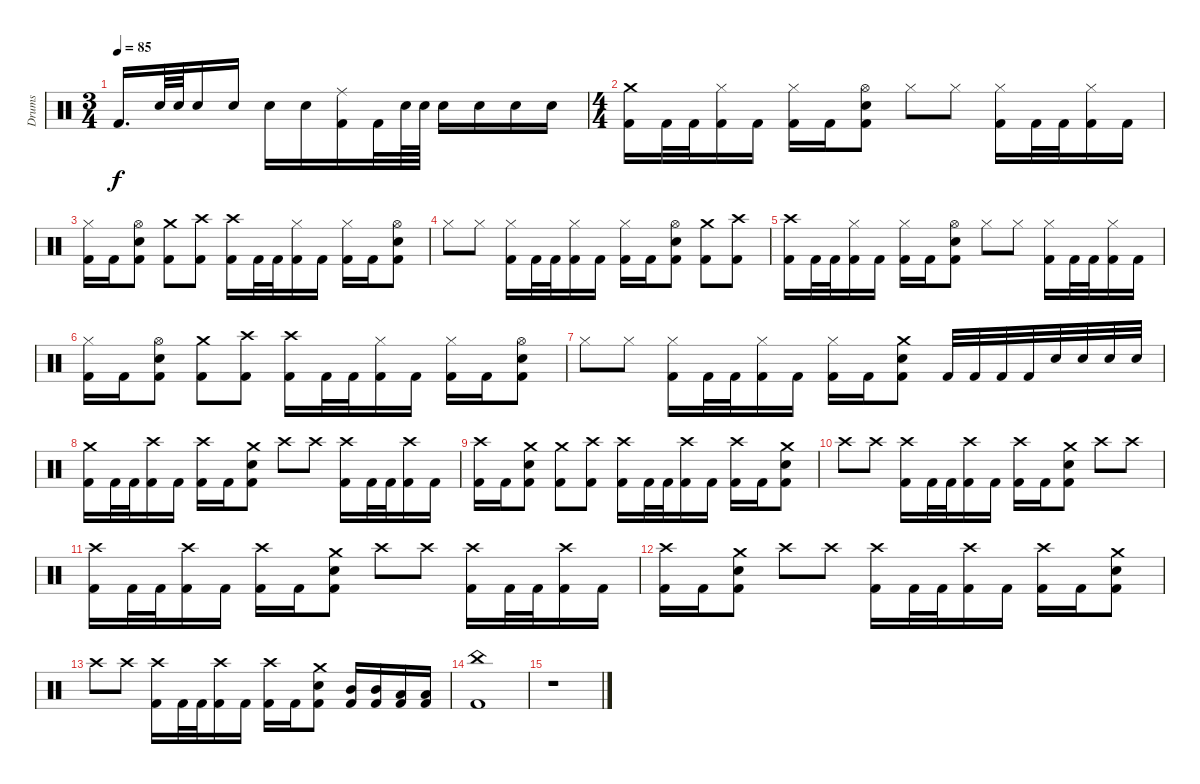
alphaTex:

\track ("Drums" "Drums") {instrument percussion}
\staff {score}
\articulation defaults
\ts (3 4)
\tempo 85
\clef neutral
\ks c "Kick (hit) 2".16{d dy f} "Snare (hit) 2".64 "Snare (hit) 2".64 "Snare (hit) 2".16 "Snare (hit) 2".16 "Snare (hit) 2".16 "Snare (hit) 2".16
("Ride (middle)" "Kick (hit) 2").16 "Kick (hit) 2".32 "Snare (hit) 2".64 "Snare (hit) 2".64 "Snare (hit) 2".16 "Snare (hit) 2".16 "Snare (hit) 2".16 "Snare (hit) 2".16 |
\ts (4 4)
("Crash medium (hit)" "Kick (hit) 2").16 "Kick (hit) 2".32 "Kick (hit) 2".32 ("Hi-Hat (closed)" "Kick (hit) 2").16 "Kick (hit) 2".16 ("Hi-Hat (closed)" "Kick (hit) 2").16 "Kick (hit) 2".16 ("Hi-Hat (open)" "Snare (hit) 2" "Kick (hit) 2").8 "Hi-Hat (closed)".8 "Hi-Hat (closed)".8 ("Hi-Hat (closed)" "Kick (hit) 2").16 "Kick (hit) 2".32 "Kick (hit) 2".32 ("Hi-Hat (closed)" "Kick (hit) 2").16 "Kick (hit) 2".16 |
("Hi-Hat (closed)" "Kick (hit) 2").16 "Kick (hit) 2".16 ("Hi-Hat (open)" "Snare (hit) 2" "Kick (hit) 2").8 ("Crash medium (hit)" "Kick (hit) 2").8 ("Crash high (hit)" "Kick (hit) 2").8 ("Crash high (hit)" "Kick (hit) 2").16 "Kick (hit) 2".32 "Kick (hit) 2".32 ("Hi-Hat (closed)" "Kick (hit) 2").16 "Kick (hit) 2".16 ("Hi-Hat (closed)" "Kick (hit) 2").16 "Kick (hit) 2".16 ("Hi-Hat (open)" "Snare (hit) 2" "Kick (hit) 2").8 |
"Hi-Hat (closed)".8 "Hi-Hat (closed)".8 ("Hi-Hat (closed)" "Kick (hit) 2").16 "Kick (hit) 2".32 "Kick (hit) 2".32 ("Hi-Hat (closed)" "Kick (hit) 2").16 "Kick (hit) 2".16 ("Hi-Hat (closed)" "Kick (hit) 2").16 "Kick (hit) 2".16 ("Hi-Hat (open)" "Snare (hit) 2" "Kick (hit) 2").8 ("Crash medium (hit)" "Kick (hit) 2").8 ("Crash high (hit)" "Kick (hit) 2").8 |
("Crash high (hit)" "Kick (hit) 2").16 "Kick (hit) 2".32 "Kick (hit) 2".32 ("Hi-Hat (closed)" "Kick (hit) 2").16 "Kick (hit) 2".16 ("Hi-Hat (closed)" "Kick (hit) 2").16 "Kick (hit) 2".16 ("Hi-Hat (open)" "Snare (hit) 2" "Kick (hit) 2").8 "Hi-Hat (closed)".8 "Hi-Hat (closed)".8 ("Hi-Hat (closed)" "Kick (hit) 2").16 "Kick (hit) 2".32 "Kick (hit) 2".32 ("Hi-Hat (closed)" "Kick (hit) 2").16 "Kick (hit) 2".16 |
("Hi-Hat (closed)" "Kick (hit) 2").16 "Kick (hit) 2".16 ("Hi-Hat (open)" "Snare (hit) 2" "Kick (hit) 2").8 ("Crash medium (hit)" "Kick (hit) 2").8 ("Crash high (hit)" "Kick (hit) 2").8 ("Crash high (hit)" "Kick (hit) 2").16 "Kick (hit) 2".32 "Kick (hit) 2".32 ("Hi-Hat (closed)" "Kick (hit) 2").16 "Kick (hit) 2".16 ("Hi-Hat (closed)" "Kick (hit) 2").16 "Kick (hit) 2".16 ("Hi-Hat (open)" "Snare (hit) 2" "Kick (hit) 2").8 |
"Hi-Hat (closed)".8 "Hi-Hat (closed)".8 ("Hi-Hat (closed)" "Kick (hit) 2").16 "Kick (hit) 2".32 "Kick (hit) 2".32 ("Hi-Hat (closed)" "Kick (hit) 2").16 "Kick (hit) 2".16 ("Hi-Hat (closed)" "Kick (hit) 2").16 "Kick (hit) 2".16 ("Crash medium (hit)" "Snare (hit) 2" "Kick (hit) 2").8 "Kick (hit) 2".32 "Kick (hit) 2".32 "Kick (hit) 2".32 "Kick (hit) 2".32 "Snare (hit) 2".32 "Snare (hit) 2".32 "Snare (hit) 2".32 "Snare (hit) 2".32 |
("Crash medium (hit)" "Kick (hit) 2").16 "Kick (hit) 2".32 "Kick (hit) 2".32 ("Crash high (hit)" "Kick (hit) 2").16 "Kick (hit) 2".16 ("Crash high (hit)" "Kick (hit) 2").16 "Kick (hit) 2".16 ("Crash medium (hit)" "Snare (hit) 2" "Kick (hit) 2").8 "Crash high (hit)".8 "Crash high (hit)".8 ("Crash high (hit)" "Kick (hit) 2").16 "Kick (hit) 2".32 "Kick (hit) 2".32 ("Crash high (hit)" "Kick (hit) 2").16 "Kick (hit) 2".16 |
("Crash high (hit)" "Kick (hit) 2").16 "Kick (hit) 2".16 ("Crash medium (hit)" "Snare (hit) 2" "Kick (hit) 2").8 ("Crash medium (hit)" "Kick (hit) 2").8 ("Crash high (hit)" "Kick (hit) 2").8 ("Crash high (hit)" "Kick (hit) 2").16 "Kick (hit) 2".32 "Kick (hit) 2".32 ("Crash high (hit)" "Kick (hit) 2").16 "Kick (hit) 2".16 ("Crash high (hit)" "Kick (hit) 2").16 "Kick (hit) 2".16 ("Crash medium (hit)" "Snare (hit) 2" "Kick (hit) 2").8 |
"Crash high (hit)".8 "Crash high (hit)".8 ("Crash high (hit)" "Kick (hit) 2").16 "Kick (hit) 2".32 "Kick (hit) 2".32 ("Crash high (hit)" "Kick (hit) 2").16 "Kick (hit) 2".16 ("Crash high (hit)" "Kick (hit) 2").16 "Kick (hit) 2".16 ("Crash medium (hit)" "Snare (hit) 2" "Kick (hit) 2").8 "Crash high (hit)".8 "Crash high (hit)".8 |
("Crash high (hit)" "Kick (hit) 2").16 "Kick (hit) 2".32 "Kick (hit) 2".32 ("Crash high (hit)" "Kick (hit) 2").16 "Kick (hit) 2".16 ("Crash high (hit)" "Kick (hit) 2").16 "Kick (hit) 2".16 ("Crash medium (hit)" "Snare (hit) 2" "Kick (hit) 2").8 "Crash high (hit)".8 "Crash high (hit)".8 ("Crash high (hit)" "Kick (hit) 2").16 "Kick (hit) 2".32 "Kick (hit) 2".32 ("Crash high (hit)" "Kick (hit) 2").16 "Kick (hit) 2".16 |
("Crash high (hit)" "Kick (hit) 2").16 "Kick (hit) 2".16 ("Crash medium (hit)" "Snare (hit) 2" "Kick (hit) 2").8 "Crash high (hit)".8 "Crash high (hit)".8 ("Crash high (hit)" "Kick (hit) 2").16 "Kick (hit) 2".32 "Kick (hit) 2".32 ("Crash high (hit)" "Kick (hit) 2").16 "Kick (hit) 2".16 ("Crash high (hit)" "Kick (hit) 2").16 "Kick (hit) 2".16 ("Crash medium (hit)" "Snare (hit) 2" "Kick (hit) 2").8 |
"Crash high (hit)".8 "Crash high (hit)".8 ("Crash high (hit)" "Kick (hit) 2").16 "Kick (hit) 2".32 "Kick (hit) 2".32 ("Crash high (hit)" "Kick (hit) 2").16 "Kick (hit) 2".16 ("Crash high (hit)" "Kick (hit) 2").16 "Kick (hit) 2".16 ("Crash medium (hit)" "Snare (hit) 2" "Kick (hit) 2").8 ("Mid Tom (hit)" "Kick (hit) 2").16 ("Mid Tom (hit)" "Kick (hit) 2").16 ("Low Tom (hit)" "Kick (hit) 2").16 ("Low Tom (hit)" "Kick (hit) 2").16 |
("China (hit)" "Kick (hit) 2").1 |
r.1
